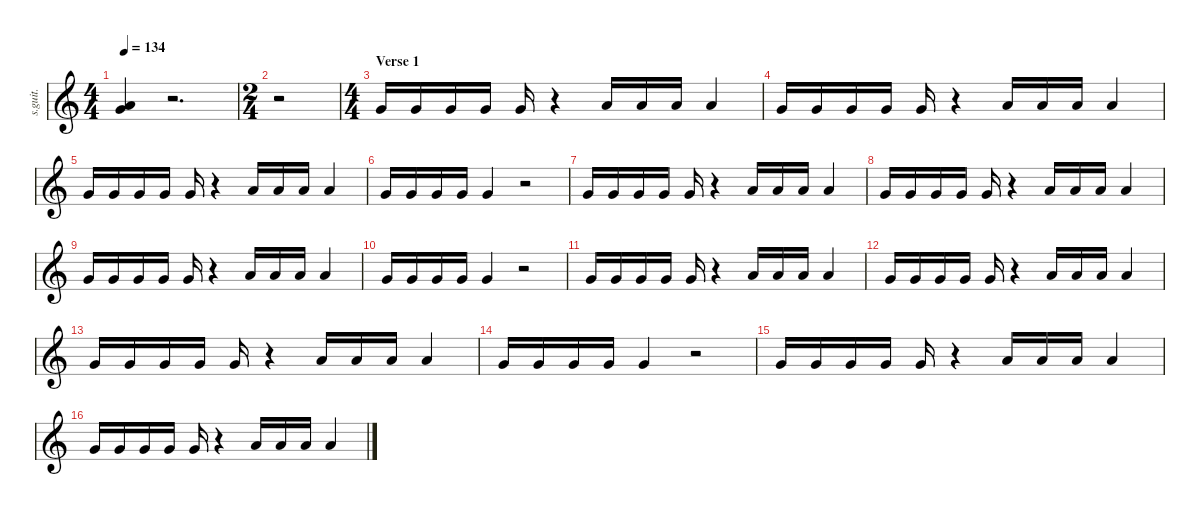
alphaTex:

\defaultSystemsLayout 4
\hideDynamics
\bracketExtendMode nobrackets
\track ("Chris Fehn" "s.guit.") {instrument percussion}
\staff {score}
\articulation defaults
\ts (4 4)
\tempo 134
\clef g2
\ks c
("Very Low Tom (hit)" "Low Floor Tom (hit)").4{dy f} r.2{d} |
\ts (2 4)
\beaming (8 2 2 2 2)
r.2 |
\ts (4 4)
\beaming (8 2 2 2 2)
\section ("" "Verse 1")
"Very Low Tom (hit)".16 "Very Low Tom (hit)".16 "Very Low Tom (hit)".16 "Very Low Tom (hit)".16 "Very Low Tom (hit)".16 r.4 "Low Floor Tom (hit)".16 "Low Floor Tom (hit)".16 "Low Floor Tom (hit)".16 "Low Floor Tom (hit)".4 |
"Very Low Tom (hit)".16 "Very Low Tom (hit)".16 "Very Low Tom (hit)".16 "Very Low Tom (hit)".16 "Very Low Tom (hit)".16 r.4 "Low Floor Tom (hit)".16 "Low Floor Tom (hit)".16 "Low Floor Tom (hit)".16 "Low Floor Tom (hit)".4 |
"Very Low Tom (hit)".16 "Very Low Tom (hit)".16 "Very Low Tom (hit)".16 "Very Low Tom (hit)".16 "Very Low Tom (hit)".16 r.4 "Low Floor Tom (hit)".16 "Low Floor Tom (hit)".16 "Low Floor Tom (hit)".16 "Low Floor Tom (hit)".4 |
"Very Low Tom (hit)".16 "Very Low Tom (hit)".16 "Very Low Tom (hit)".16 "Very Low Tom (hit)".16 "Very Low Tom (hit)".4 r.2 |
"Very Low Tom (hit)".16 "Very Low Tom (hit)".16 "Very Low Tom (hit)".16 "Very Low Tom (hit)".16 "Very Low Tom (hit)".16 r.4 "Low Floor Tom (hit)".16 "Low Floor Tom (hit)".16 "Low Floor Tom (hit)".16 "Low Floor Tom (hit)".4 |
"Very Low Tom (hit)".16 "Very Low Tom (hit)".16 "Very Low Tom (hit)".16 "Very Low Tom (hit)".16 "Very Low Tom (hit)".16 r.4 "Low Floor Tom (hit)".16 "Low Floor Tom (hit)".16 "Low Floor Tom (hit)".16 "Low Floor Tom (hit)".4 |
"Very Low Tom (hit)".16 "Very Low Tom (hit)".16 "Very Low Tom (hit)".16 "Very Low Tom (hit)".16 "Very Low Tom (hit)".16 r.4 "Low Floor Tom (hit)".16 "Low Floor Tom (hit)".16 "Low Floor Tom (hit)".16 "Low Floor Tom (hit)".4 |
"Very Low Tom (hit)".16 "Very Low Tom (hit)".16 "Very Low Tom (hit)".16 "Very Low Tom (hit)".16 "Very Low Tom (hit)".4 r.2 |
"Very Low Tom (hit)".16 "Very Low Tom (hit)".16 "Very Low Tom (hit)".16 "Very Low Tom (hit)".16 "Very Low Tom (hit)".16 r.4 "Low Floor Tom (hit)".16 "Low Floor Tom (hit)".16 "Low Floor Tom (hit)".16 "Low Floor Tom (hit)".4 |
"Very Low Tom (hit)".16 "Very Low Tom (hit)".16 "Very Low Tom (hit)".16 "Very Low Tom (hit)".16 "Very Low Tom (hit)".16 r.4 "Low Floor Tom (hit)".16 "Low Floor Tom (hit)".16 "Low Floor Tom (hit)".16 "Low Floor Tom (hit)".4 |
"Very Low Tom (hit)".16 "Very Low Tom (hit)".16 "Very Low Tom (hit)".16 "Very Low Tom (hit)".16 "Very Low Tom (hit)".16 r.4 "Low Floor Tom (hit)".16 "Low Floor Tom (hit)".16 "Low Floor Tom (hit)".16 "Low Floor Tom (hit)".4 |
"Very Low Tom (hit)".16 "Very Low Tom (hit)".16 "Very Low Tom (hit)".16 "Very Low Tom (hit)".16 "Very Low Tom (hit)".4 r.2 |
"Very Low Tom (hit)".16 "Very Low Tom (hit)".16 "Very Low Tom (hit)".16 "Very Low Tom (hit)".16 "Very Low Tom (hit)".16 r.4 "Low Floor Tom (hit)".16 "Low Floor Tom (hit)".16 "Low Floor Tom (hit)".16 "Low Floor Tom (hit)".4 |
"Very Low Tom (hit)".16 "Very Low Tom (hit)".16 "Very Low Tom (hit)".16 "Very Low Tom (hit)".16 "Very Low Tom (hit)".16 r.4 "Low Floor Tom (hit)".16 "Low Floor Tom (hit)".16 "Low Floor Tom (hit)".16 "Low Floor Tom (hit)".4
